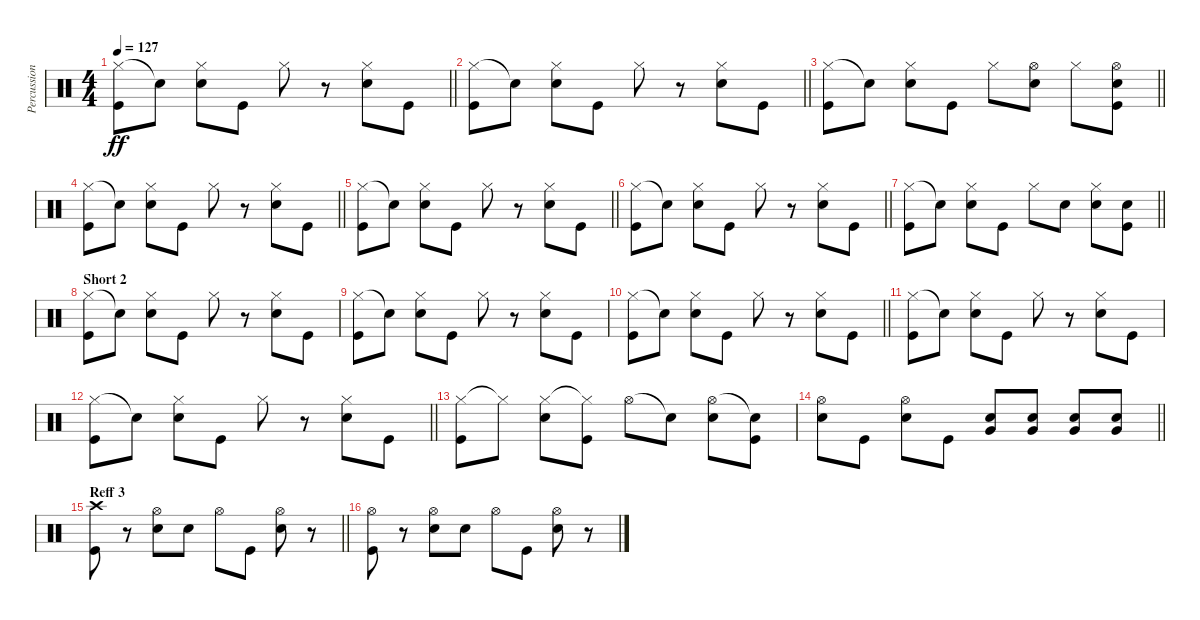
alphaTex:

\track ("Percussion" "Percussion") {instrument percussion}
\staff {score}
\articulation defaults
\ts (4 4)
\tempo 127
\clef neutral
\barLineRight lightlight
\ks c
("Hi-Hat (closed)" "Kick (hit)").8{dy ff} "Snare (hit)"{t}.8 ("Hi-Hat (closed)" "Electric Snare (hit)").8 "Kick (hit)".8 "Hi-Hat (closed)".8 r.8 ("Hi-Hat (closed)" "Electric Snare (hit)").8 "Kick (hit)".8 |
\barLineRight lightlight
("Hi-Hat (closed)" "Kick (hit)").8 "Snare (hit)"{t}.8 ("Hi-Hat (closed)" "Electric Snare (hit)").8 "Kick (hit)".8 "Hi-Hat (closed)".8 r.8 ("Hi-Hat (closed)" "Electric Snare (hit)").8 "Kick (hit)".8 |
\barLineRight lightlight
("Hi-Hat (closed)" "Kick (hit)").8 "Snare (hit)"{t}.8 ("Hi-Hat (closed)" "Electric Snare (hit)").8 "Kick (hit)".8 "Hi-Hat (closed)".8 ("Hi-Hat (open)" "Electric Snare (hit)").8 "Hi-Hat (closed)".8 ("Hi-Hat (open)" "Electric Snare (hit)" "Kick (hit)").8 |
\barLineRight lightlight
("Hi-Hat (closed)" "Kick (hit)").8 "Snare (hit)"{t}.8 ("Hi-Hat (closed)" "Electric Snare (hit)").8 "Kick (hit)".8 "Hi-Hat (closed)".8 r.8 ("Hi-Hat (closed)" "Electric Snare (hit)").8 "Kick (hit)".8 |
\barLineRight lightlight
("Hi-Hat (closed)" "Kick (hit)").8 "Snare (hit)"{t}.8 ("Hi-Hat (closed)" "Electric Snare (hit)").8 "Kick (hit)".8 "Hi-Hat (closed)".8 r.8 ("Hi-Hat (closed)" "Electric Snare (hit)").8 "Kick (hit)".8 |
\barLineRight lightlight
("Hi-Hat (closed)" "Kick (hit)").8 "Snare (hit)"{t}.8 ("Hi-Hat (closed)" "Electric Snare (hit)").8 "Kick (hit)".8 "Hi-Hat (closed)".8 r.8 ("Hi-Hat (closed)" "Electric Snare (hit)").8 "Kick (hit)".8 |
\barLineRight lightlight
("Hi-Hat (closed)" "Kick (hit)").8 "Snare (hit)"{t}.8 ("Hi-Hat (closed)" "Electric Snare (hit)").8 "Kick (hit)".8 "Hi-Hat (closed)".8 "Electric Snare (hit)".8 ("Hi-Hat (closed)" "Electric Snare (hit)").8 ("Electric Snare (hit)" "Kick (hit)").8 |
\section ("" "Short 2")
("Hi-Hat (closed)" "Kick (hit)").8 "Snare (hit)"{t}.8 ("Hi-Hat (closed)" "Electric Snare (hit)").8 "Kick (hit)".8 "Hi-Hat (closed)".8 r.8 ("Hi-Hat (closed)" "Electric Snare (hit)").8 "Kick (hit)".8 |
("Hi-Hat (closed)" "Kick (hit)").8 "Snare (hit)"{t}.8 ("Hi-Hat (closed)" "Electric Snare (hit)").8 "Kick (hit)".8 "Hi-Hat (closed)".8 r.8 ("Hi-Hat (closed)" "Electric Snare (hit)").8 "Kick (hit)".8 |
\barLineRight lightlight
("Hi-Hat (closed)" "Kick (hit)").8 "Snare (hit)"{t}.8 ("Hi-Hat (closed)" "Electric Snare (hit)").8 "Kick (hit)".8 "Hi-Hat (closed)".8 r.8 ("Hi-Hat (closed)" "Electric Snare (hit)").8 "Kick (hit)".8 |
("Hi-Hat (closed)" "Kick (hit)").8 "Snare (hit)"{t}.8 ("Hi-Hat (closed)" "Electric Snare (hit)").8 "Kick (hit)".8 "Hi-Hat (closed)".8 r.8 ("Hi-Hat (closed)" "Electric Snare (hit)").8 "Kick (hit)".8 |
\barLineRight lightlight
("Hi-Hat (closed)" "Kick (hit)").8 "Snare (hit)"{t}.8 ("Hi-Hat (closed)" "Electric Snare (hit)").8 "Kick (hit)".8 "Hi-Hat (closed)".8 r.8 ("Hi-Hat (closed)" "Electric Snare (hit)").8 "Kick (hit)".8 |
("Hi-Hat (closed)" "Kick (hit)").8 "Hi-Hat (closed)"{t}.8 ("Hi-Hat (closed)" "Electric Snare (hit)").8 ("Hi-Hat (closed)"{t} "Kick (hit)").8 "Hi-Hat (open)".8 "Snare (hit)"{t}.8 ("Hi-Hat (open)" "Electric Snare (hit)").8 ("Snare (hit)"{t} "Kick (hit)").8 |
\barLineRight lightlight
("Hi-Hat (open)" "Electric Snare (hit)").8 "Kick (hit)".8 ("Hi-Hat (open)" "Electric Snare (hit)").8 "Kick (hit)".8 ("Electric Snare (hit)" "Very Low Tom (hit)").8 ("Electric Snare (hit)" "Very Low Tom (hit)").8 ("Electric Snare (hit)" "Very Low Tom (hit)").8 ("Electric Snare (hit)" "Very Low Tom (hit)").8 |
\section ("" "Reff 3")
\barLineRight lightlight
("Crash high (hit)" "Kick (hit)").8 r.8 ("Hi-Hat (open)" "Electric Snare (hit)").8 "Electric Snare (hit)".8 "Hi-Hat (open)".8 "Kick (hit)".8 ("Hi-Hat (open)" "Electric Snare (hit)").8 r.8 |
("Hi-Hat (open)" "Kick (hit)").8 r.8 ("Hi-Hat (open)" "Electric Snare (hit)").8 "Electric Snare (hit)".8 "Hi-Hat (open)".8 "Kick (hit)".8 ("Hi-Hat (open)" "Electric Snare (hit)").8 r.8
